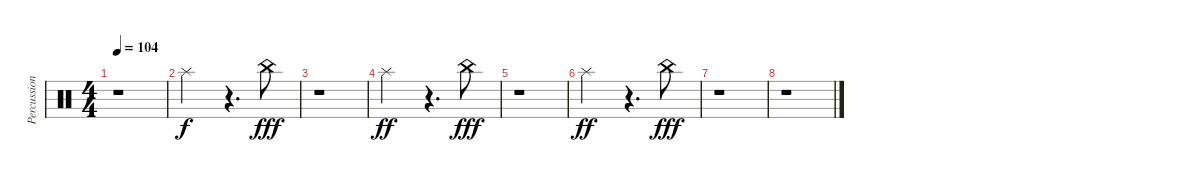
\track ("Percussion" "Percussion") {instrument percussion}
\staff {score}
\articulation defaults
\ts (4 4)
\tempo 104
\clef neutral
\ks c
r.1{dy fff} |
"Splash (hit)".2{dy f} r.4{d} "China (hit)".8{dy fff} |
r.1 |
"Splash (hit)".2{dy ff volume 0} r.4{d} "China (hit)".8{dy fff} |
r.1 |
"Splash (hit)".2{dy ff} r.4{d} "China (hit)".8{dy fff} |
r.1 |
r.1
